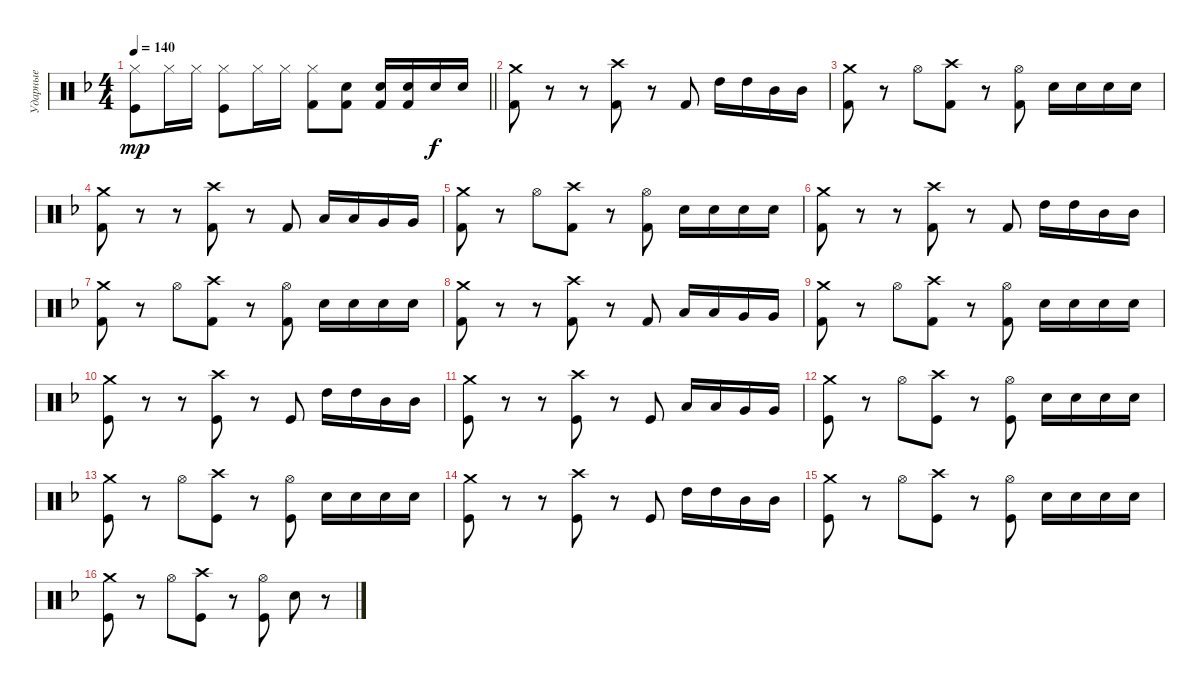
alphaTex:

\track ("Ударные" "Ударные") {instrument percussion}
\staff {score}
\articulation defaults
\ts (4 4)
\tempo 140
\clef neutral
\barLineRight lightlight
\ks dminor
("Hi-Hat (closed)" "Kick (hit)").8{dy mp} "Hi-Hat (closed)".16 "Hi-Hat (closed)".16 ("Hi-Hat (closed)" "Kick (hit)").8 "Hi-Hat (closed)".16 "Hi-Hat (closed)".16 ("Hi-Hat (closed)" "Kick (hit) 2").8 ("Electric Snare (hit)" "Kick (hit) 2").8 ("Electric Snare (hit)" "Kick (hit) 2").16 ("Electric Snare (hit)" "Kick (hit) 2").16 "Electric Snare (hit)".16{dy f} "Electric Snare (hit)".16 |
("Crash medium (hit)" "Kick (hit) 2").8 r.8 r.8 ("Crash high (hit)" "Kick (hit) 2").8 r.8 "Kick (hit) 2".8 "High Tom (hit)".16 "High Tom (hit)".16 "Mid Tom (hit)".16 "Mid Tom (hit)".16 |
("Crash medium (hit)" "Kick (hit) 2").8 r.8 "Hi-Hat (open)".8 ("Crash high (hit)" "Kick (hit) 2").8 r.8 ("Hi-Hat (open)" "Kick (hit) 2").8 "Electric Snare (hit)".16 "Electric Snare (hit)".16 "Electric Snare (hit)".16 "Electric Snare (hit)".16 |
("Crash medium (hit)" "Kick (hit) 2").8 r.8 r.8 ("Crash high (hit)" "Kick (hit) 2").8 r.8 "Kick (hit) 2".8 "Low Tom (hit)".16 "Low Tom (hit)".16 "Very Low Tom (hit)".16 "Very Low Tom (hit)".16 |
("Crash medium (hit)" "Kick (hit) 2").8 r.8 "Hi-Hat (open)".8 ("Crash high (hit)" "Kick (hit) 2").8 r.8 ("Hi-Hat (open)" "Kick (hit) 2").8 "Electric Snare (hit)".16 "Electric Snare (hit)".16 "Electric Snare (hit)".16 "Electric Snare (hit)".16 |
("Crash medium (hit)" "Kick (hit) 2").8 r.8 r.8 ("Crash high (hit)" "Kick (hit) 2").8 r.8 "Kick (hit) 2".8 "High Tom (hit)".16 "High Tom (hit)".16 "Mid Tom (hit)".16 "Mid Tom (hit)".16 |
("Crash medium (hit)" "Kick (hit) 2").8 r.8 "Hi-Hat (open)".8 ("Crash high (hit)" "Kick (hit) 2").8 r.8 ("Hi-Hat (open)" "Kick (hit) 2").8 "Electric Snare (hit)".16 "Electric Snare (hit)".16 "Electric Snare (hit)".16 "Electric Snare (hit)".16 |
("Crash medium (hit)" "Kick (hit) 2").8 r.8 r.8 ("Crash high (hit)" "Kick (hit) 2").8 r.8 "Kick (hit) 2".8 "Low Tom (hit)".16 "Low Tom (hit)".16 "Very Low Tom (hit)".16 "Very Low Tom (hit)".16 |
("Crash medium (hit)" "Kick (hit) 2").8 r.8 "Hi-Hat (open)".8 ("Crash high (hit)" "Kick (hit) 2").8 r.8 ("Hi-Hat (open)" "Kick (hit) 2").8 "Electric Snare (hit)".16 "Electric Snare (hit)".16 "Electric Snare (hit)".16 "Electric Snare (hit)".16 |
("Crash medium (hit)" "Kick (hit)").8 r.8 r.8 ("Crash high (hit)" "Kick (hit)").8 r.8 "Kick (hit)".8 "High Tom (hit)".16 "High Tom (hit)".16 "Mid Tom (hit)".16 "Mid Tom (hit)".16 |
("Crash medium (hit)" "Kick (hit)").8 r.8 r.8 ("Crash high (hit)" "Kick (hit)").8 r.8 "Kick (hit)".8 "Low Tom (hit)".16 "Low Tom (hit)".16 "Very Low Tom (hit)".16 "Very Low Tom (hit)".16 |
("Crash medium (hit)" "Kick (hit)").8 r.8 "Hi-Hat (open)".8 ("Crash high (hit)" "Kick (hit)").8 r.8 ("Hi-Hat (open)" "Kick (hit)").8 "Electric Snare (hit)".16 "Electric Snare (hit)".16 "Electric Snare (hit)".16 "Electric Snare (hit)".16 |
("Crash medium (hit)" "Kick (hit)").8 r.8 "Hi-Hat (open)".8 ("Crash high (hit)" "Kick (hit)").8 r.8 ("Hi-Hat (open)" "Kick (hit)").8 "Electric Snare (hit)".16 "Electric Snare (hit)".16 "Electric Snare (hit)".16 "Electric Snare (hit)".16 |
("Crash medium (hit)" "Kick (hit)").8 r.8 r.8 ("Crash high (hit)" "Kick (hit)").8 r.8 "Kick (hit)".8 "High Tom (hit)".16 "High Tom (hit)".16 "Mid Tom (hit)".16 "Mid Tom (hit)".16 |
("Crash medium (hit)" "Kick (hit)").8 r.8 "Hi-Hat (open)".8 ("Crash high (hit)" "Kick (hit)").8 r.8 ("Hi-Hat (open)" "Kick (hit)").8 "Electric Snare (hit)".16 "Electric Snare (hit)".16 "Electric Snare (hit)".16 "Electric Snare (hit)".16 |
("Crash medium (hit)" "Kick (hit)").8 r.8 "Hi-Hat (open)".8 ("Crash high (hit)" "Kick (hit)").8 r.8 ("Hi-Hat (open)" "Kick (hit)").8 "Electric Snare (hit)".8 r.8
